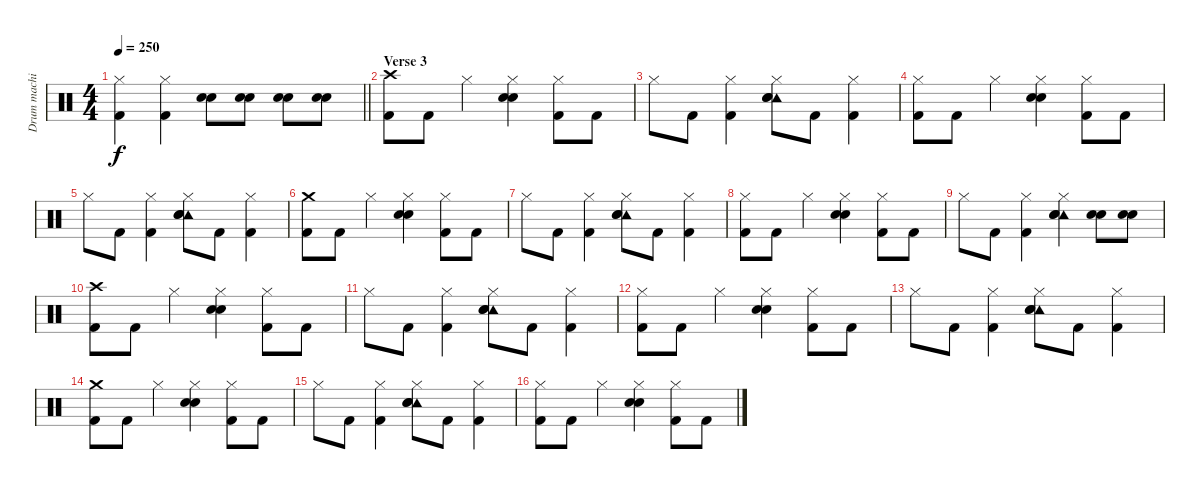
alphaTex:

\track ("Drum machine" "Drum machi") {instrument percussion}
\staff {score}
\articulation defaults
\ts (4 4)
\tempo 250
\clef neutral
\barLineRight lightlight
\ks c
("Hi-Hat (closed)" "Kick (hit) 2").4{dy f} ("Hi-Hat (closed)" "Kick (hit) 2").4 ("Snare (hit) 2" "Electric Snare (hit)").8 ("Snare (hit) 2" "Electric Snare (hit)").8 ("Snare (hit) 2" "Electric Snare (hit)").8 ("Snare (hit) 2" "Electric Snare (hit)").8 |
\section ("" "Verse 3")
("Crash high (hit)" "Kick (hit) 2").8 "Kick (hit) 2".8 "Hi-Hat (closed)".4 ("Hi-Hat (closed)" "Electric Snare (hit)" "Snare (hit) 2").4 ("Hi-Hat (closed)" "Kick (hit) 2").8 "Kick (hit) 2".8 |
"Hi-Hat (closed)".8 "Kick (hit) 2".8 ("Hi-Hat (closed)" "Kick (hit) 2").4 ("Tambourine (hit)" "Hi-Hat (closed)" "Electric Snare (hit)" "Snare (hit) 2").8 "Kick (hit) 2".8 ("Hi-Hat (closed)" "Kick (hit) 2").4 |
("Hi-Hat (closed)" "Kick (hit) 2").8 "Kick (hit) 2".8 "Hi-Hat (closed)".4 ("Hi-Hat (closed)" "Electric Snare (hit)" "Snare (hit) 2").4 ("Hi-Hat (closed)" "Kick (hit) 2").8 "Kick (hit) 2".8 |
"Hi-Hat (closed)".8 "Kick (hit) 2".8 ("Hi-Hat (closed)" "Kick (hit) 2").4 ("Tambourine (hit)" "Hi-Hat (closed)" "Electric Snare (hit)" "Snare (hit) 2").8 "Kick (hit) 2".8 ("Hi-Hat (closed)" "Kick (hit) 2").4 |
("Crash medium (hit)" "Kick (hit) 2").8 "Kick (hit) 2".8 "Hi-Hat (closed)".4 ("Hi-Hat (closed)" "Electric Snare (hit)" "Snare (hit) 2").4 ("Hi-Hat (closed)" "Kick (hit) 2").8 "Kick (hit) 2".8 |
"Hi-Hat (closed)".8 "Kick (hit) 2".8 ("Hi-Hat (closed)" "Kick (hit) 2").4 ("Tambourine (hit)" "Hi-Hat (closed)" "Electric Snare (hit)" "Snare (hit) 2").8 "Kick (hit) 2".8 ("Hi-Hat (closed)" "Kick (hit) 2").4 |
("Hi-Hat (closed)" "Kick (hit) 2").8 "Kick (hit) 2".8 "Hi-Hat (closed)".4 ("Hi-Hat (closed)" "Electric Snare (hit)" "Snare (hit) 2").4 ("Hi-Hat (closed)" "Kick (hit) 2").8 "Kick (hit) 2".8 |
"Hi-Hat (closed)".8 "Kick (hit) 2".8 ("Hi-Hat (closed)" "Kick (hit) 2").4 ("Tambourine (hit)" "Hi-Hat (closed)" "Electric Snare (hit)" "Snare (hit) 2").4 ("Electric Snare (hit)" "Snare (hit) 2").8 ("Electric Snare (hit)" "Snare (hit) 2").8 |
("Crash high (hit)" "Kick (hit) 2").8 "Kick (hit) 2".8 "Hi-Hat (closed)".4 ("Hi-Hat (closed)" "Electric Snare (hit)" "Snare (hit) 2").4 ("Hi-Hat (closed)" "Kick (hit) 2").8 "Kick (hit) 2".8 |
"Hi-Hat (closed)".8 "Kick (hit) 2".8 ("Hi-Hat (closed)" "Kick (hit) 2").4 ("Tambourine (hit)" "Hi-Hat (closed)" "Electric Snare (hit)" "Snare (hit) 2").8 "Kick (hit) 2".8 ("Hi-Hat (closed)" "Kick (hit) 2").4 |
("Hi-Hat (closed)" "Kick (hit) 2").8 "Kick (hit) 2".8 "Hi-Hat (closed)".4 ("Hi-Hat (closed)" "Electric Snare (hit)" "Snare (hit) 2").4 ("Hi-Hat (closed)" "Kick (hit) 2").8 "Kick (hit) 2".8 |
"Hi-Hat (closed)".8 "Kick (hit) 2".8 ("Hi-Hat (closed)" "Kick (hit) 2").4 ("Tambourine (hit)" "Hi-Hat (closed)" "Electric Snare (hit)" "Snare (hit) 2").8 "Kick (hit) 2".8 ("Hi-Hat (closed)" "Kick (hit) 2").4 |
("Crash medium (hit)" "Kick (hit) 2").8 "Kick (hit) 2".8 "Hi-Hat (closed)".4 ("Hi-Hat (closed)" "Electric Snare (hit)" "Snare (hit) 2").4 ("Hi-Hat (closed)" "Kick (hit) 2").8 "Kick (hit) 2".8 |
"Hi-Hat (closed)".8 "Kick (hit) 2".8 ("Hi-Hat (closed)" "Kick (hit) 2").4 ("Tambourine (hit)" "Hi-Hat (closed)" "Electric Snare (hit)" "Snare (hit) 2").8 "Kick (hit) 2".8 ("Hi-Hat (closed)" "Kick (hit) 2").4 |
("Hi-Hat (closed)" "Kick (hit) 2").8 "Kick (hit) 2".8 "Hi-Hat (closed)".4 ("Hi-Hat (closed)" "Electric Snare (hit)" "Snare (hit) 2").4 ("Hi-Hat (closed)" "Kick (hit) 2").8 "Kick (hit) 2".8
